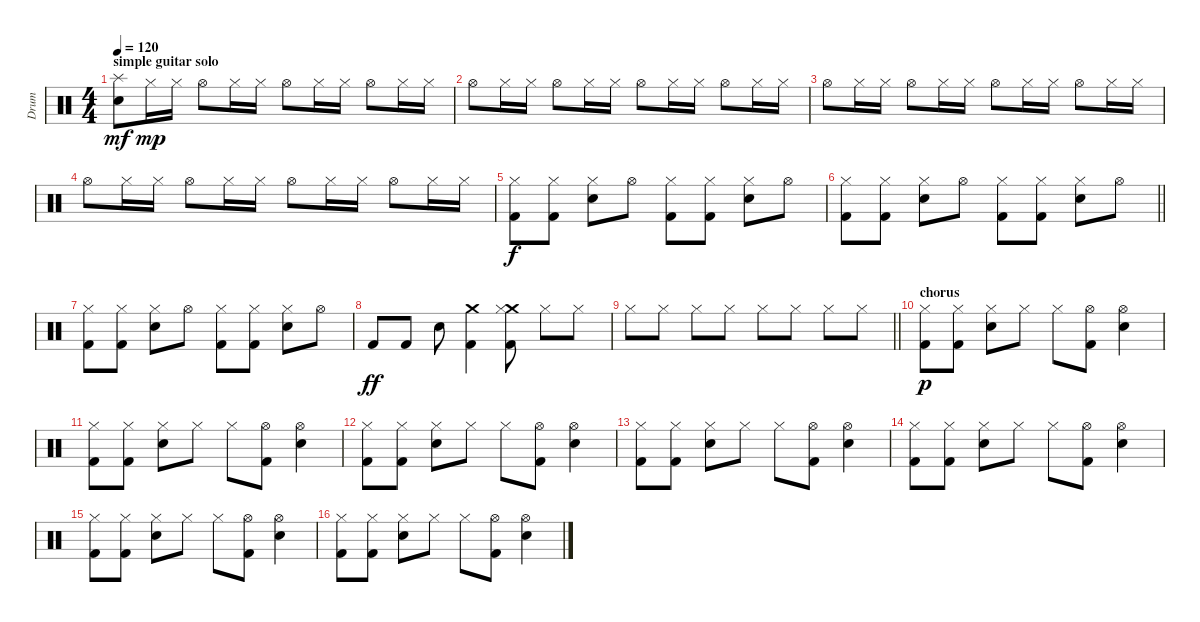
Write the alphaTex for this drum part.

\track ("Drum" "Drum") {instrument percussion}
\staff {score}
\articulation defaults
\ts (4 4)
\section ("" "simple guitar solo")
\tempo 120
\clef neutral
\ks c
("Splash (hit)" "Electric Snare (hit)").8{dy mf} "Hi-Hat (closed)".16{dy mp} "Hi-Hat (closed)".16 "Hi-Hat (open)".8 "Hi-Hat (closed)".16 "Hi-Hat (closed)".16 "Hi-Hat (open)".8 "Hi-Hat (closed)".16 "Hi-Hat (closed)".16 "Hi-Hat (open)".8 "Hi-Hat (closed)".16 "Hi-Hat (closed)".16 |
"Hi-Hat (open)".8 "Hi-Hat (closed)".16 "Hi-Hat (closed)".16 "Hi-Hat (open)".8 "Hi-Hat (closed)".16 "Hi-Hat (closed)".16 "Hi-Hat (open)".8 "Hi-Hat (closed)".16 "Hi-Hat (closed)".16 "Hi-Hat (open)".8 "Hi-Hat (closed)".16 "Hi-Hat (closed)".16 |
"Hi-Hat (open)".8 "Hi-Hat (closed)".16 "Hi-Hat (closed)".16 "Hi-Hat (open)".8 "Hi-Hat (closed)".16 "Hi-Hat (closed)".16 "Hi-Hat (open)".8 "Hi-Hat (closed)".16 "Hi-Hat (closed)".16 "Hi-Hat (open)".8 "Hi-Hat (closed)".16 "Hi-Hat (closed)".16 |
"Hi-Hat (open)".8 "Hi-Hat (closed)".16 "Hi-Hat (closed)".16 "Hi-Hat (open)".8 "Hi-Hat (closed)".16 "Hi-Hat (closed)".16 "Hi-Hat (open)".8 "Hi-Hat (closed)".16 "Hi-Hat (closed)".16 "Hi-Hat (open)".8 "Hi-Hat (closed)".16 "Hi-Hat (closed)".16 |
("Kick (hit) 2" "Hi-Hat (closed)").8{dy f} ("Kick (hit) 2" "Hi-Hat (closed)").8 ("Electric Snare (hit)" "Hi-Hat (closed)").8 "Hi-Hat (open)".8 ("Kick (hit) 2" "Hi-Hat (closed)").8 ("Kick (hit) 2" "Hi-Hat (closed)").8 ("Electric Snare (hit)" "Hi-Hat (closed)").8 "Hi-Hat (open)".8 |
\barLineRight lightlight
("Kick (hit) 2" "Hi-Hat (closed)").8 ("Kick (hit) 2" "Hi-Hat (closed)").8 ("Electric Snare (hit)" "Hi-Hat (closed)").8 "Hi-Hat (open)".8 ("Kick (hit) 2" "Hi-Hat (closed)").8 ("Kick (hit) 2" "Hi-Hat (closed)").8 ("Electric Snare (hit)" "Hi-Hat (closed)").8 "Hi-Hat (open)".8 |
("Kick (hit) 2" "Hi-Hat (closed)").8 ("Kick (hit) 2" "Hi-Hat (closed)").8 ("Electric Snare (hit)" "Hi-Hat (closed)").8 "Hi-Hat (open)".8 ("Kick (hit) 2" "Hi-Hat (closed)").8 ("Kick (hit) 2" "Hi-Hat (closed)").8 ("Electric Snare (hit)" "Hi-Hat (closed)").8 "Hi-Hat (open)".8 |
"Kick (hit) 2".8{dy ff} "Kick (hit) 2".8 "Electric Snare (hit)".8 ("Crash medium (hit)" "Kick (hit) 2").4 ("Crash medium (hit)" "Hi-Hat (closed)" "Kick (hit) 2").8 "Hi-Hat (closed)".8 "Hi-Hat (closed)".8 |
\barLineRight lightlight "Hi-Hat (closed)".8 "Hi-Hat (closed)".8 "Hi-Hat (closed)".8 "Hi-Hat (closed)".8 "Hi-Hat (closed)".8 "Hi-Hat (closed)".8 "Hi-Hat (closed)".8 "Hi-Hat (closed)".8
|
\section ("" "chorus")
("Kick (hit) 2" "Hi-Hat (closed)").8{dy p} ("Kick (hit) 2" "Hi-Hat (closed)").8 ("Hi-Hat (closed)" "Snare (hit) 2").8 "Hi-Hat (closed)".8 "Hi-Hat (closed)".8 ("Kick (hit) 2" "Hi-Hat (open)").8 ("Snare (hit) 2" "Hi-Hat (open)").4 |
("Kick (hit) 2" "Hi-Hat (closed)").8 ("Kick (hit) 2" "Hi-Hat (closed)").8 ("Hi-Hat (closed)" "Snare (hit) 2").8 "Hi-Hat (closed)".8 "Hi-Hat (closed)".8 ("Kick (hit) 2" "Hi-Hat (open)").8 ("Snare (hit) 2" "Hi-Hat (open)").4 |
("Kick (hit) 2" "Hi-Hat (closed)").8 ("Kick (hit) 2" "Hi-Hat (closed)").8 ("Hi-Hat (closed)" "Snare (hit) 2").8 "Hi-Hat (closed)".8 "Hi-Hat (closed)".8 ("Kick (hit) 2" "Hi-Hat (open)").8 ("Snare (hit) 2" "Hi-Hat (open)").4 |
("Kick (hit) 2" "Hi-Hat (closed)").8 ("Kick (hit) 2" "Hi-Hat (closed)").8 ("Hi-Hat (closed)" "Snare (hit) 2").8 "Hi-Hat (closed)".8 "Hi-Hat (closed)".8 ("Kick (hit) 2" "Hi-Hat (open)").8 ("Snare (hit) 2" "Hi-Hat (open)").4 |
("Kick (hit) 2" "Hi-Hat (closed)").8 ("Kick (hit) 2" "Hi-Hat (closed)").8 ("Hi-Hat (closed)" "Snare (hit) 2").8 "Hi-Hat (closed)".8 "Hi-Hat (closed)".8 ("Kick (hit) 2" "Hi-Hat (open)").8 ("Snare (hit) 2" "Hi-Hat (open)").4 |
("Kick (hit) 2" "Hi-Hat (closed)").8 ("Kick (hit) 2" "Hi-Hat (closed)").8 ("Hi-Hat (closed)" "Snare (hit) 2").8 "Hi-Hat (closed)".8 "Hi-Hat (closed)".8 ("Kick (hit) 2" "Hi-Hat (open)").8 ("Snare (hit) 2" "Hi-Hat (open)").4 |
("Kick (hit) 2" "Hi-Hat (closed)").8 ("Kick (hit) 2" "Hi-Hat (closed)").8 ("Hi-Hat (closed)" "Snare (hit) 2").8 "Hi-Hat (closed)".8 "Hi-Hat (closed)".8 ("Kick (hit) 2" "Hi-Hat (open)").8 ("Snare (hit) 2" "Hi-Hat (open)").4
